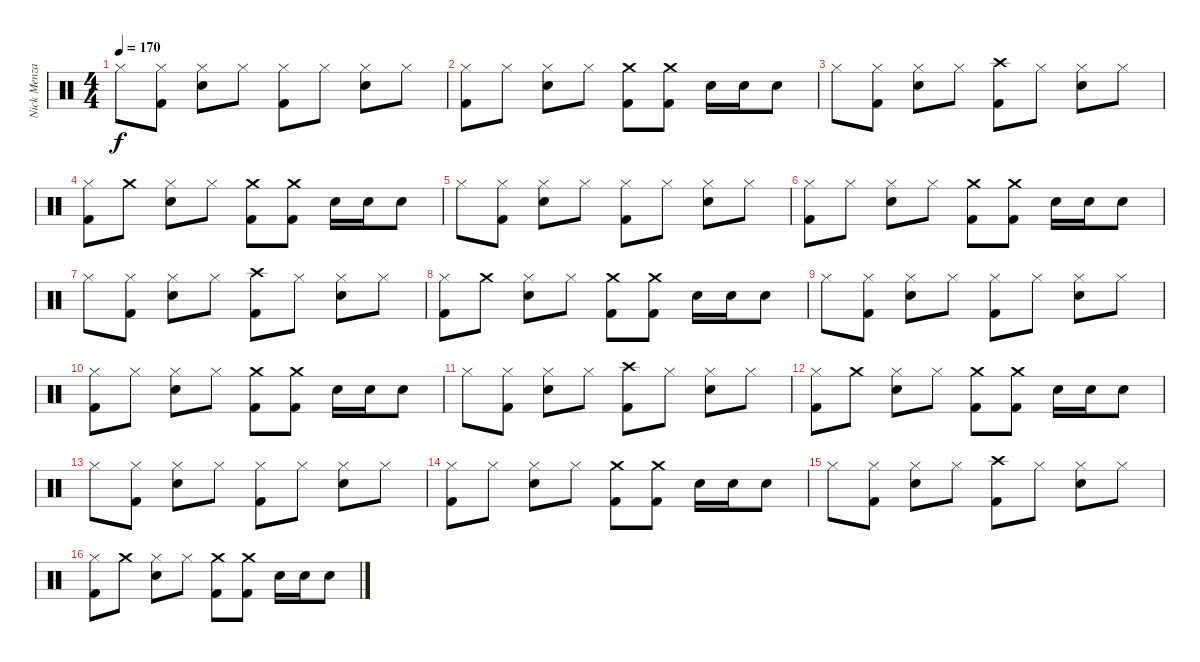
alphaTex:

\track ("Nick Menza" "Nick Menza") {instrument percussion}
\staff {score}
\articulation defaults
\ts (4 4)
\tempo 170
\clef neutral
\ks c "Hi-Hat (closed)".8{dy f}
("Hi-Hat (closed)" "Kick (hit) 2").8 ("Hi-Hat (closed)" "Electric Snare (hit)").8 "Hi-Hat (closed)".8 ("Hi-Hat (closed)" "Kick (hit) 2").8 "Hi-Hat (closed)".8 ("Hi-Hat (closed)" "Electric Snare (hit)").8 "Hi-Hat (closed)".8 |
("Hi-Hat (closed)" "Kick (hit) 2").8 "Hi-Hat (closed)".8 ("Hi-Hat (closed)" "Electric Snare (hit)").8 "Hi-Hat (closed)".8 ("Crash medium (hit)" "Kick (hit) 2").8 ("Crash medium (hit)" "Kick (hit) 2").8 "Electric Snare (hit)".16 "Electric Snare (hit)".16 "Electric Snare (hit)".8 |
"Hi-Hat (closed)".8 ("Hi-Hat (closed)" "Kick (hit) 2").8 ("Hi-Hat (closed)" "Electric Snare (hit)").8 "Hi-Hat (closed)".8 ("Crash high (hit)" "Kick (hit) 2").8 "Hi-Hat (closed)".8 ("Hi-Hat (closed)" "Electric Snare (hit)").8 "Hi-Hat (closed)".8 |
("Hi-Hat (closed)" "Kick (hit) 2").8 "Crash medium (hit)".8 ("Hi-Hat (closed)" "Electric Snare (hit)").8 "Hi-Hat (closed)".8 ("Crash medium (hit)" "Kick (hit) 2").8 ("Crash medium (hit)" "Kick (hit) 2").8 "Electric Snare (hit)".16 "Electric Snare (hit)".16 "Electric Snare (hit)".8 |
"Hi-Hat (closed)".8 ("Hi-Hat (closed)" "Kick (hit) 2").8 ("Hi-Hat (closed)" "Electric Snare (hit)").8 "Hi-Hat (closed)".8 ("Hi-Hat (closed)" "Kick (hit) 2").8 "Hi-Hat (closed)".8 ("Hi-Hat (closed)" "Electric Snare (hit)").8 "Hi-Hat (closed)".8 |
("Hi-Hat (closed)" "Kick (hit) 2").8 "Hi-Hat (closed)".8 ("Hi-Hat (closed)" "Electric Snare (hit)").8 "Hi-Hat (closed)".8 ("Crash medium (hit)" "Kick (hit) 2").8 ("Crash medium (hit)" "Kick (hit) 2").8 "Electric Snare (hit)".16 "Electric Snare (hit)".16 "Electric Snare (hit)".8 |
"Hi-Hat (closed)".8 ("Hi-Hat (closed)" "Kick (hit) 2").8 ("Hi-Hat (closed)" "Electric Snare (hit)").8 "Hi-Hat (closed)".8 ("Crash high (hit)" "Kick (hit) 2").8 "Hi-Hat (closed)".8 ("Hi-Hat (closed)" "Electric Snare (hit)").8 "Hi-Hat (closed)".8 |
("Hi-Hat (closed)" "Kick (hit) 2").8 "Crash medium (hit)".8 ("Hi-Hat (closed)" "Electric Snare (hit)").8 "Hi-Hat (closed)".8 ("Crash medium (hit)" "Kick (hit) 2").8 ("Crash medium (hit)" "Kick (hit) 2").8 "Electric Snare (hit)".16 "Electric Snare (hit)".16 "Electric Snare (hit)".8 |
"Hi-Hat (closed)".8 ("Hi-Hat (closed)" "Kick (hit) 2").8 ("Hi-Hat (closed)" "Electric Snare (hit)").8 "Hi-Hat (closed)".8 ("Hi-Hat (closed)" "Kick (hit) 2").8 "Hi-Hat (closed)".8 ("Hi-Hat (closed)" "Electric Snare (hit)").8 "Hi-Hat (closed)".8 |
("Hi-Hat (closed)" "Kick (hit) 2").8 "Hi-Hat (closed)".8 ("Hi-Hat (closed)" "Electric Snare (hit)").8 "Hi-Hat (closed)".8 ("Crash medium (hit)" "Kick (hit) 2").8 ("Crash medium (hit)" "Kick (hit) 2").8 "Electric Snare (hit)".16 "Electric Snare (hit)".16 "Electric Snare (hit)".8 |
"Hi-Hat (closed)".8 ("Hi-Hat (closed)" "Kick (hit) 2").8 ("Hi-Hat (closed)" "Electric Snare (hit)").8 "Hi-Hat (closed)".8 ("Crash high (hit)" "Kick (hit) 2").8 "Hi-Hat (closed)".8 ("Hi-Hat (closed)" "Electric Snare (hit)").8 "Hi-Hat (closed)".8 |
("Hi-Hat (closed)" "Kick (hit) 2").8 "Crash medium (hit)".8 ("Hi-Hat (closed)" "Electric Snare (hit)").8 "Hi-Hat (closed)".8 ("Crash medium (hit)" "Kick (hit) 2").8 ("Crash medium (hit)" "Kick (hit) 2").8 "Electric Snare (hit)".16 "Electric Snare (hit)".16 "Electric Snare (hit)".8 |
"Hi-Hat (closed)".8 ("Hi-Hat (closed)" "Kick (hit) 2").8 ("Hi-Hat (closed)" "Electric Snare (hit)").8 "Hi-Hat (closed)".8 ("Hi-Hat (closed)" "Kick (hit) 2").8 "Hi-Hat (closed)".8 ("Hi-Hat (closed)" "Electric Snare (hit)").8 "Hi-Hat (closed)".8 |
("Hi-Hat (closed)" "Kick (hit) 2").8 "Hi-Hat (closed)".8 ("Hi-Hat (closed)" "Electric Snare (hit)").8 "Hi-Hat (closed)".8 ("Crash medium (hit)" "Kick (hit) 2").8 ("Crash medium (hit)" "Kick (hit) 2").8 "Electric Snare (hit)".16 "Electric Snare (hit)".16 "Electric Snare (hit)".8 |
"Hi-Hat (closed)".8 ("Hi-Hat (closed)" "Kick (hit) 2").8 ("Hi-Hat (closed)" "Electric Snare (hit)").8 "Hi-Hat (closed)".8 ("Crash high (hit)" "Kick (hit) 2").8 "Hi-Hat (closed)".8 ("Hi-Hat (closed)" "Electric Snare (hit)").8 "Hi-Hat (closed)".8 |
("Hi-Hat (closed)" "Kick (hit) 2").8 "Crash medium (hit)".8 ("Hi-Hat (closed)" "Electric Snare (hit)").8 "Hi-Hat (closed)".8 ("Crash medium (hit)" "Kick (hit) 2").8 ("Crash medium (hit)" "Kick (hit) 2").8 "Electric Snare (hit)".16 "Electric Snare (hit)".16 "Electric Snare (hit)".8
